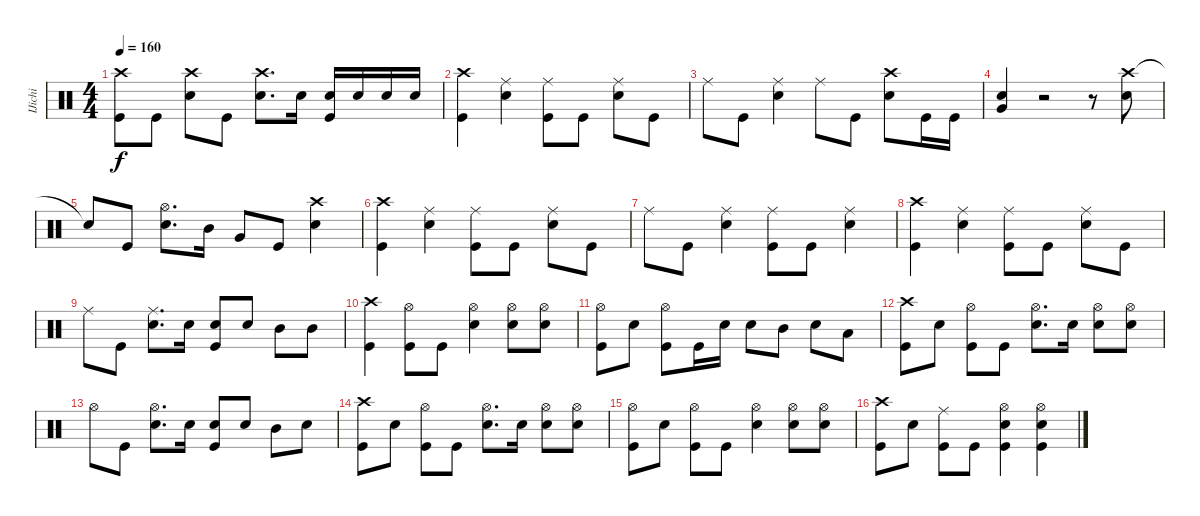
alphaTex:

\track ("IJichi" "IJichi") {instrument percussion}
\staff {score}
\articulation defaults
\ts (4 4)
\tempo 160
\clef neutral
\ks c
("Crash high (hit)" "Kick (hit)").8{dy f} "Kick (hit)".8 ("Crash high (hit)" "Snare (hit) 2").8 "Kick (hit)".8 ("Crash high (hit)" "Snare (hit) 2").8{d} "Snare (hit) 2".16 ("Snare (hit) 2" "Kick (hit)").16 "Snare (hit) 2".16 "Snare (hit) 2".16 "Snare (hit) 2".16 |
("Crash high (hit)" "Kick (hit)").4 ("Ride (middle)" "Snare (hit) 2").4 ("Ride (middle)" "Kick (hit)").8 "Kick (hit)".8 ("Ride (middle)" "Snare (hit) 2").8 "Kick (hit)".8 |
"Ride (middle)".8 "Kick (hit)".8 ("Ride (middle)" "Snare (hit) 2").4 "Ride (middle)".8 "Kick (hit)".8 ("Crash high (hit)" "Snare (hit) 2").8 "Kick (hit)".16 "Kick (hit)".16 |
("Snare (hit) 2" "Very Low Tom (hit)").4 r.2 r.8 ("Crash high (hit)" "Snare (hit) 2").8 |
"Snare (hit)"{t}.8 "Kick (hit)".8 ("Hi-Hat (open)" "Snare (hit) 2").8{d} "Mid Tom (hit)".16 "Very Low Tom (hit)".8 "Kick (hit)".8 ("Crash high (hit)" "Snare (hit) 2").4 |
("Crash high (hit)" "Kick (hit)").4 ("Ride (middle)" "Snare (hit) 2").4 ("Ride (middle)" "Kick (hit)").8 "Kick (hit)".8 ("Ride (middle)" "Snare (hit) 2").8 "Kick (hit)".8 |
"Ride (middle)".8 "Kick (hit)".8 ("Ride (middle)" "Snare (hit) 2").4 ("Ride (middle)" "Kick (hit)").8 "Kick (hit)".8 ("Ride (middle)" "Snare (hit) 2").4 |
("Crash high (hit)" "Kick (hit)").4 ("Ride (middle)" "Snare (hit) 2").4 ("Ride (middle)" "Kick (hit)").8 "Kick (hit)".8 ("Ride (middle)" "Snare (hit) 2").8 "Kick (hit)".8 |
"Ride (middle)".8 "Kick (hit)".8 ("Ride (middle)" "Snare (hit) 2").8{d} "Snare (hit) 2".16 ("Snare (hit) 2" "Kick (hit)").8 "Snare (hit) 2".8 "Mid Tom (hit)".8 "Mid Tom (hit)".8 |
("Crash high (hit)" "Kick (hit)").4 ("Hi-Hat (open)" "Kick (hit)").8 "Kick (hit)".8 ("Hi-Hat (open)" "Snare (hit) 2").4 ("Hi-Hat (open)" "Snare (hit) 2").8 ("Hi-Hat (open)" "Snare (hit) 2").8 |
("Hi-Hat (open)" "Kick (hit)").8 "Snare (hit) 2".8 ("Hi-Hat (open)" "Kick (hit)").8 "Kick (hit)".16 "Snare (hit) 2".16 "Snare (hit) 2".8 "Mid Tom (hit)".8 "Snare (hit) 2".8 "Low Tom (hit)".8 |
("Crash high (hit)" "Kick (hit)").8 "Snare (hit) 2".8 ("Hi-Hat (open)" "Kick (hit)").8 "Kick (hit)".8 ("Hi-Hat (open)" "Snare (hit) 2").8{d} "Snare (hit) 2".16 ("Hi-Hat (open)" "Snare (hit) 2").8 ("Hi-Hat (open)" "Snare (hit) 2").8 |
"Hi-Hat (open)".8 "Kick (hit)".8 ("Hi-Hat (open)" "Snare (hit) 2").8{d} "Snare (hit) 2".16 ("Snare (hit) 2" "Kick (hit)").8 "Snare (hit) 2".8 "Mid Tom (hit)".8 "Snare (hit) 2".8 |
("Crash high (hit)" "Kick (hit)").8 "Snare (hit) 2".8 ("Hi-Hat (open)" "Kick (hit)").8 "Kick (hit)".8 ("Hi-Hat (open)" "Snare (hit) 2").8{d} "Snare (hit) 2".16 ("Hi-Hat (open)" "Snare (hit) 2").8 ("Hi-Hat (open)" "Snare (hit) 2").8 |
("Hi-Hat (open)" "Kick (hit)").8 "Snare (hit) 2".8 ("Hi-Hat (open)" "Kick (hit)").8 "Kick (hit)".8 ("Hi-Hat (open)" "Snare (hit) 2").4 ("Hi-Hat (open)" "Snare (hit) 2").8 ("Hi-Hat (open)" "Snare (hit) 2").8 |
("Crash high (hit)" "Kick (hit)").8 "Snare (hit) 2".8 ("Ride (middle)" "Kick (hit)").8 "Kick (hit)".8 ("Hi-Hat (open)" "Snare (hit) 2" "Kick (hit)").4 ("Hi-Hat (open)" "Snare (hit) 2" "Kick (hit)").4
